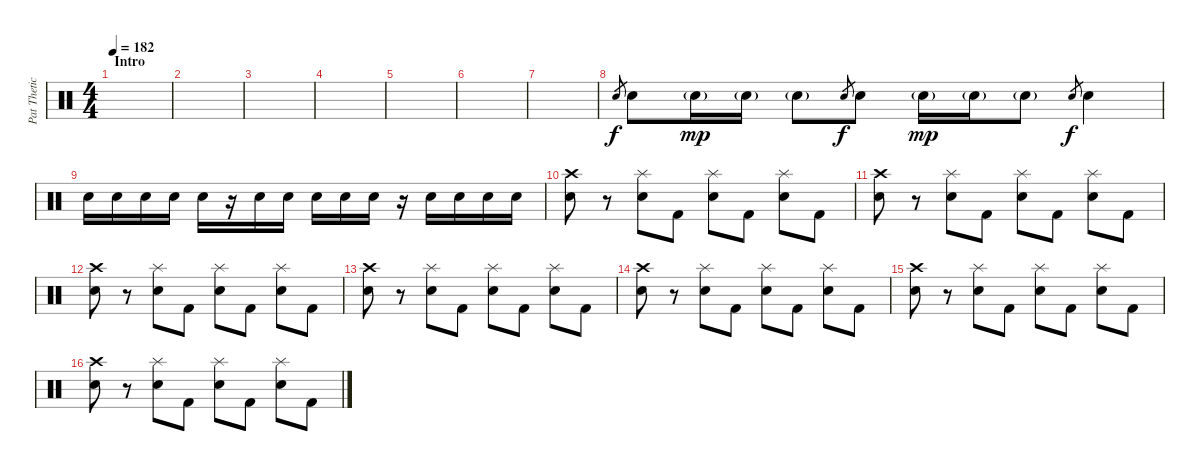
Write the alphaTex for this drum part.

\track ("Pat Thetic - Drums" "Pat Thetic") {instrument percussion}
\staff {score}
\articulation defaults
\ts (4 4)
\section ("" "Intro")
\tempo 182
\clef neutral
\ks c
|
|
|
|
|
|
|
"Electric Snare (hit)".8{gr} "Electric Snare (hit)".8 "Snare (hit) 2"{g}.16{dy mp} "Snare (hit) 2"{g}.16 "Snare (hit) 2"{g}.8 "Electric Snare (hit)".8{gr dy f} "Electric Snare (hit)".8 "Snare (hit) 2"{g}.16{dy mp} "Snare (hit) 2"{g}.16 "Snare (hit) 2"{g}.8 "Electric Snare (hit)".8{gr dy f} "Electric Snare (hit)".4 |
"Electric Snare (hit)".16 "Electric Snare (hit)".16 "Electric Snare (hit)".16 "Electric Snare (hit)".16 "Electric Snare (hit)".16 r.16 "Electric Snare (hit)".16 "Electric Snare (hit)".16 "Electric Snare (hit)".16 "Electric Snare (hit)".16 "Electric Snare (hit)".16 r.16 "Electric Snare (hit)".16 "Electric Snare (hit)".16 "Electric Snare (hit)".16 "Electric Snare (hit)".16 |
("Crash high (hit)" "Electric Snare (hit)").8 r.8 ("Splash (hit)" "Electric Snare (hit)").8 "Kick (hit) 2".8 ("Splash (hit)" "Electric Snare (hit)").8 "Kick (hit) 2".8 ("Splash (hit)" "Electric Snare (hit)").8 "Kick (hit) 2".8 |
("Crash high (hit)" "Electric Snare (hit)").8 r.8 ("Splash (hit)" "Electric Snare (hit)").8 "Kick (hit) 2".8 ("Splash (hit)" "Electric Snare (hit)").8 "Kick (hit) 2".8 ("Splash (hit)" "Electric Snare (hit)").8 "Kick (hit) 2".8 |
("Crash high (hit)" "Electric Snare (hit)").8 r.8 ("Splash (hit)" "Electric Snare (hit)").8 "Kick (hit) 2".8 ("Splash (hit)" "Electric Snare (hit)").8 "Kick (hit) 2".8 ("Splash (hit)" "Electric Snare (hit)").8 "Kick (hit) 2".8 |
("Crash high (hit)" "Electric Snare (hit)").8 r.8 ("Splash (hit)" "Electric Snare (hit)").8 "Kick (hit) 2".8 ("Splash (hit)" "Electric Snare (hit)").8 "Kick (hit) 2".8 ("Splash (hit)" "Electric Snare (hit)").8 "Kick (hit) 2".8 |
("Crash high (hit)" "Electric Snare (hit)").8 r.8 ("Splash (hit)" "Electric Snare (hit)").8 "Kick (hit) 2".8 ("Splash (hit)" "Electric Snare (hit)").8 "Kick (hit) 2".8 ("Splash (hit)" "Electric Snare (hit)").8 "Kick (hit) 2".8 |
("Crash high (hit)" "Electric Snare (hit)").8 r.8 ("Splash (hit)" "Electric Snare (hit)").8 "Kick (hit) 2".8 ("Splash (hit)" "Electric Snare (hit)").8 "Kick (hit) 2".8 ("Splash (hit)" "Electric Snare (hit)").8 "Kick (hit) 2".8 |
("Crash high (hit)" "Electric Snare (hit)").8 r.8 ("Splash (hit)" "Electric Snare (hit)").8 "Kick (hit) 2".8 ("Splash (hit)" "Electric Snare (hit)").8 "Kick (hit) 2".8 ("Splash (hit)" "Electric Snare (hit)").8 "Kick (hit) 2".8
